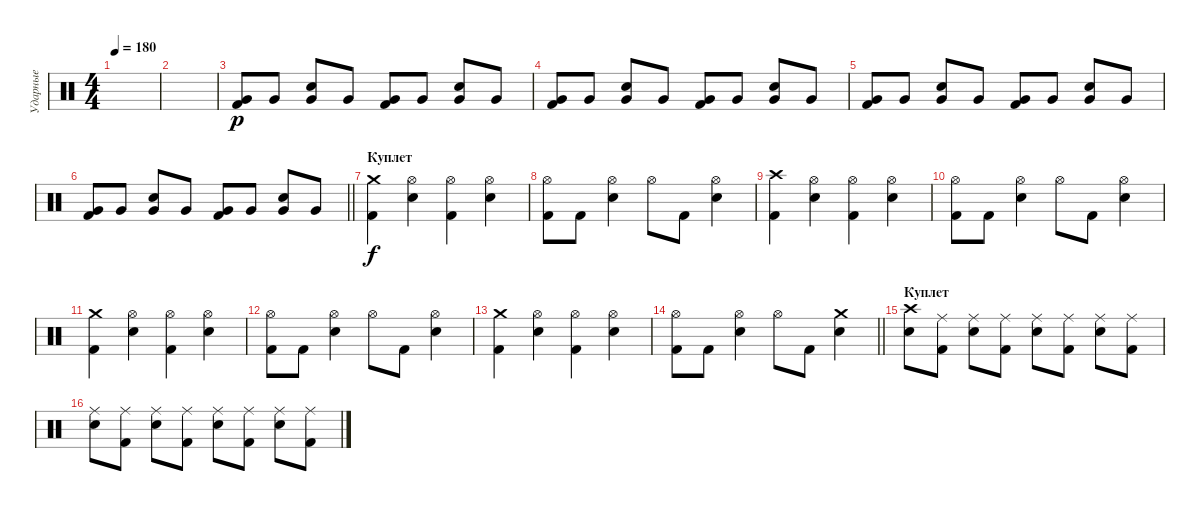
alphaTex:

\track ("Ударные" "Ударные") {instrument percussion}
\staff {score}
\articulation defaults
\ts (4 4)
\tempo 180
\clef neutral
\ks c
|
|
("Kick (hit) 2" "Very Low Tom (hit)").8{dy p} "Very Low Tom (hit)".8 ("Electric Snare (hit)" "Very Low Tom (hit)").8 "Very Low Tom (hit)".8 ("Kick (hit) 2" "Very Low Tom (hit)").8 "Very Low Tom (hit)".8 ("Electric Snare (hit)" "Very Low Tom (hit)").8 "Very Low Tom (hit)".8 |
("Kick (hit) 2" "Very Low Tom (hit)").8 "Very Low Tom (hit)".8 ("Electric Snare (hit)" "Very Low Tom (hit)").8 "Very Low Tom (hit)".8 ("Kick (hit) 2" "Very Low Tom (hit)").8 "Very Low Tom (hit)".8 ("Electric Snare (hit)" "Very Low Tom (hit)").8 "Very Low Tom (hit)".8 |
("Kick (hit) 2" "Very Low Tom (hit)").8 "Very Low Tom (hit)".8 ("Electric Snare (hit)" "Very Low Tom (hit)").8 "Very Low Tom (hit)".8 ("Kick (hit) 2" "Very Low Tom (hit)").8 "Very Low Tom (hit)".8 ("Electric Snare (hit)" "Very Low Tom (hit)").8 "Very Low Tom (hit)".8 |
\barLineRight lightlight
("Kick (hit) 2" "Very Low Tom (hit)").8 "Very Low Tom (hit)".8 ("Electric Snare (hit)" "Very Low Tom (hit)").8 "Very Low Tom (hit)".8 ("Kick (hit) 2" "Very Low Tom (hit)").8 "Very Low Tom (hit)".8 ("Electric Snare (hit)" "Very Low Tom (hit)").8 "Very Low Tom (hit)".8 |
\section ("" "Куплет")
("Crash medium (hit)" "Kick (hit) 2").4{dy f} ("Hi-Hat (open)" "Electric Snare (hit)").4 ("Hi-Hat (open)" "Kick (hit) 2").4 ("Hi-Hat (open)" "Electric Snare (hit)").4 |
("Hi-Hat (open)" "Kick (hit) 2").8 "Kick (hit) 2".8 ("Hi-Hat (open)" "Electric Snare (hit)").4 "Hi-Hat (open)".8 "Kick (hit) 2".8 ("Hi-Hat (open)" "Electric Snare (hit)").4 |
("Crash high (hit)" "Kick (hit) 2").4 ("Hi-Hat (open)" "Electric Snare (hit)").4 ("Hi-Hat (open)" "Kick (hit) 2").4 ("Hi-Hat (open)" "Electric Snare (hit)").4 |
("Hi-Hat (open)" "Kick (hit) 2").8 "Kick (hit) 2".8 ("Hi-Hat (open)" "Electric Snare (hit)").4 "Hi-Hat (open)".8 "Kick (hit) 2".8 ("Hi-Hat (open)" "Electric Snare (hit)").4 |
("Crash medium (hit)" "Kick (hit) 2").4 ("Hi-Hat (open)" "Electric Snare (hit)").4 ("Hi-Hat (open)" "Kick (hit) 2").4 ("Hi-Hat (open)" "Electric Snare (hit)").4 |
("Hi-Hat (open)" "Kick (hit) 2").8 "Kick (hit) 2".8 ("Hi-Hat (open)" "Electric Snare (hit)").4 "Hi-Hat (open)".8 "Kick (hit) 2".8 ("Hi-Hat (open)" "Electric Snare (hit)").4 |
("Crash medium (hit)" "Kick (hit) 2").4 ("Hi-Hat (open)" "Electric Snare (hit)").4 ("Hi-Hat (open)" "Kick (hit) 2").4 ("Hi-Hat (open)" "Electric Snare (hit)").4 |
\barLineRight lightlight
("Hi-Hat (open)" "Kick (hit) 2").8 "Kick (hit) 2".8 ("Hi-Hat (open)" "Electric Snare (hit)").4 "Hi-Hat (open)".8 "Kick (hit) 2".8 ("Crash medium (hit)" "Electric Snare (hit)").4 |
\section ("" "Куплет")
("Crash high (hit)" "Electric Snare (hit)").8 ("Ride (middle)" "Kick (hit) 2").8 ("Ride (middle)" "Electric Snare (hit)").8 ("Ride (middle)" "Kick (hit) 2").8 ("Ride (middle)" "Electric Snare (hit)").8 ("Ride (middle)" "Kick (hit) 2").8 ("Ride (middle)" "Electric Snare (hit)").8 ("Ride (middle)" "Kick (hit) 2").8 |
("Ride (middle)" "Electric Snare (hit)").8 ("Ride (middle)" "Kick (hit) 2").8 ("Ride (middle)" "Electric Snare (hit)").8 ("Ride (middle)" "Kick (hit) 2").8 ("Ride (middle)" "Electric Snare (hit)").8 ("Ride (middle)" "Kick (hit) 2").8 ("Ride (middle)" "Electric Snare (hit)").8 ("Ride (middle)" "Kick (hit) 2").8
